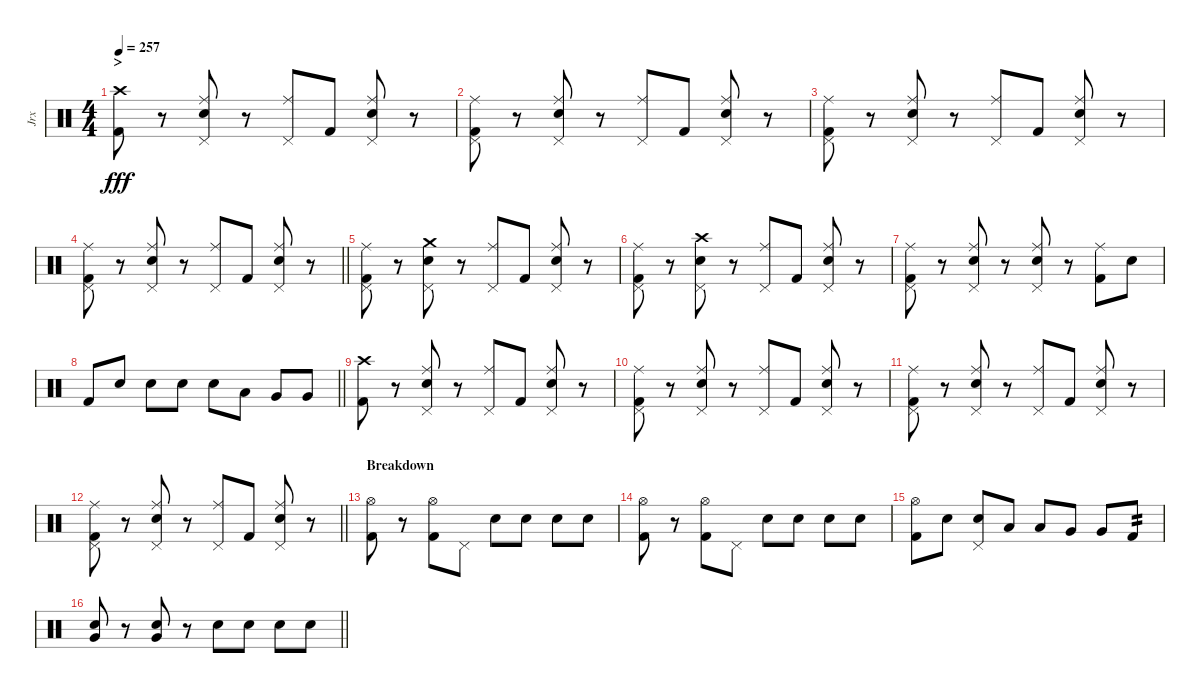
\track ("Jrx" "Jrx") {instrument percussion}
\staff {score}
\articulation defaults
\ts (4 4)
\section ("" ">")
\tempo 257
\clef neutral
\ks c
("Kick (hit) 2" "Crash high (hit)").8{dy fff} r.8 ("Pedal Hi-Hat (hit)" "Snare (hit) 2" "Ride (middle)").8 r.8 ("Pedal Hi-Hat (hit)" "Ride (middle)").8 "Kick (hit) 2".8 ("Pedal Hi-Hat (hit)" "Snare (hit) 2" "Ride (middle)").8 r.8 |
("Pedal Hi-Hat (hit)" "Kick (hit) 2" "Ride (middle)").8 r.8 ("Pedal Hi-Hat (hit)" "Snare (hit) 2" "Ride (middle)").8 r.8 ("Pedal Hi-Hat (hit)" "Ride (middle)").8 "Kick (hit) 2".8 ("Pedal Hi-Hat (hit)" "Snare (hit) 2" "Ride (middle)").8 r.8 |
("Pedal Hi-Hat (hit)" "Kick (hit) 2" "Ride (middle)").8 r.8 ("Pedal Hi-Hat (hit)" "Snare (hit) 2" "Ride (middle)").8 r.8 ("Pedal Hi-Hat (hit)" "Ride (middle)").8 "Kick (hit) 2".8 ("Pedal Hi-Hat (hit)" "Snare (hit) 2" "Ride (middle)").8 r.8 |
\barLineRight lightlight
("Pedal Hi-Hat (hit)" "Kick (hit) 2" "Ride (middle)").8 r.8 ("Pedal Hi-Hat (hit)" "Snare (hit) 2" "Ride (middle)").8 r.8 ("Pedal Hi-Hat (hit)" "Ride (middle)").8 "Kick (hit) 2".8 ("Pedal Hi-Hat (hit)" "Snare (hit) 2" "Ride (middle)").8 r.8 |
("Pedal Hi-Hat (hit)" "Kick (hit) 2" "Ride (middle)").8 r.8 ("Pedal Hi-Hat (hit)" "Snare (hit) 2" "Crash medium (hit)").8 r.8 ("Pedal Hi-Hat (hit)" "Ride (middle)").8 "Kick (hit) 2".8 ("Pedal Hi-Hat (hit)" "Snare (hit) 2" "Ride (middle)").8 r.8 |
("Pedal Hi-Hat (hit)" "Kick (hit) 2" "Ride (middle)").8 r.8 ("Pedal Hi-Hat (hit)" "Snare (hit) 2" "Crash high (hit)").8 r.8 ("Pedal Hi-Hat (hit)" "Ride (middle)").8 "Kick (hit) 2".8 ("Pedal Hi-Hat (hit)" "Snare (hit) 2" "Ride (middle)").8 r.8 |
("Pedal Hi-Hat (hit)" "Kick (hit) 2" "Ride (middle)").8 r.8 ("Pedal Hi-Hat (hit)" "Snare (hit) 2" "Ride (middle)").8 r.8 ("Pedal Hi-Hat (hit)" "Snare (hit) 2" "Ride (middle)").8 r.8 ("Kick (hit) 2" "Ride (middle)").8 "Snare (hit) 2".8 |
\barLineRight lightlight "Kick (hit) 2".8 "Snare (hit) 2".8 "Snare (hit) 2".8 "Snare (hit) 2".8 "Snare (hit) 2".8 "Low Tom (hit)".8 "Very Low Tom (hit)".8 "Very Low Tom (hit)".8
|
("Kick (hit) 2" "Crash high (hit)").8 r.8 ("Pedal Hi-Hat (hit)" "Snare (hit) 2" "Ride (middle)").8 r.8 ("Pedal Hi-Hat (hit)" "Ride (middle)").8 "Kick (hit) 2".8 ("Pedal Hi-Hat (hit)" "Snare (hit) 2" "Ride (middle)").8 r.8 |
("Pedal Hi-Hat (hit)" "Kick (hit) 2" "Ride (middle)").8 r.8 ("Pedal Hi-Hat (hit)" "Snare (hit) 2" "Ride (middle)").8 r.8 ("Pedal Hi-Hat (hit)" "Ride (middle)").8 "Kick (hit) 2".8 ("Pedal Hi-Hat (hit)" "Snare (hit) 2" "Ride (middle)").8 r.8 |
("Pedal Hi-Hat (hit)" "Kick (hit) 2" "Ride (middle)").8 r.8 ("Pedal Hi-Hat (hit)" "Snare (hit) 2" "Ride (middle)").8 r.8 ("Pedal Hi-Hat (hit)" "Ride (middle)").8 "Kick (hit) 2".8 ("Pedal Hi-Hat (hit)" "Snare (hit) 2" "Ride (middle)").8 r.8 |
\barLineRight lightlight
("Pedal Hi-Hat (hit)" "Kick (hit) 2" "Ride (middle)").8 r.8 ("Pedal Hi-Hat (hit)" "Snare (hit) 2" "Ride (middle)").8 r.8 ("Pedal Hi-Hat (hit)" "Ride (middle)").8 "Kick (hit) 2".8 ("Pedal Hi-Hat (hit)" "Snare (hit) 2" "Ride (middle)").8 r.8 |
\section ("" "Breakdown")
("Hi-Hat (open)" "Kick (hit) 2").8 r.8 ("Hi-Hat (open)" "Kick (hit) 2").8 "Pedal Hi-Hat (hit)".8 "Snare (hit) 2".8 "Snare (hit) 2".8 "Snare (hit) 2".8 "Snare (hit) 2".8 |
("Hi-Hat (open)" "Kick (hit) 2").8 r.8 ("Hi-Hat (open)" "Kick (hit) 2").8 "Pedal Hi-Hat (hit)".8 "Snare (hit) 2".8 "Snare (hit) 2".8 "Snare (hit) 2".8 "Snare (hit) 2".8 |
("Hi-Hat (open)" "Kick (hit) 2").8 "Snare (hit) 2".8 ("Pedal Hi-Hat (hit)" "Snare (hit) 2").8 "Low Tom (hit)".8 "Low Tom (hit)".8 "Very Low Tom (hit)".8 "Very Low Tom (hit)".8 "Kick (hit) 2".8{tp 2} |
\barLineRight lightlight
("Snare (hit) 2" "Very Low Tom (hit)").8 r.8 ("Snare (hit) 2" "Very Low Tom (hit)").8 r.8 "Snare (hit) 2".8 "Snare (hit) 2".8 "Snare (hit) 2".8 "Snare (hit) 2".8
